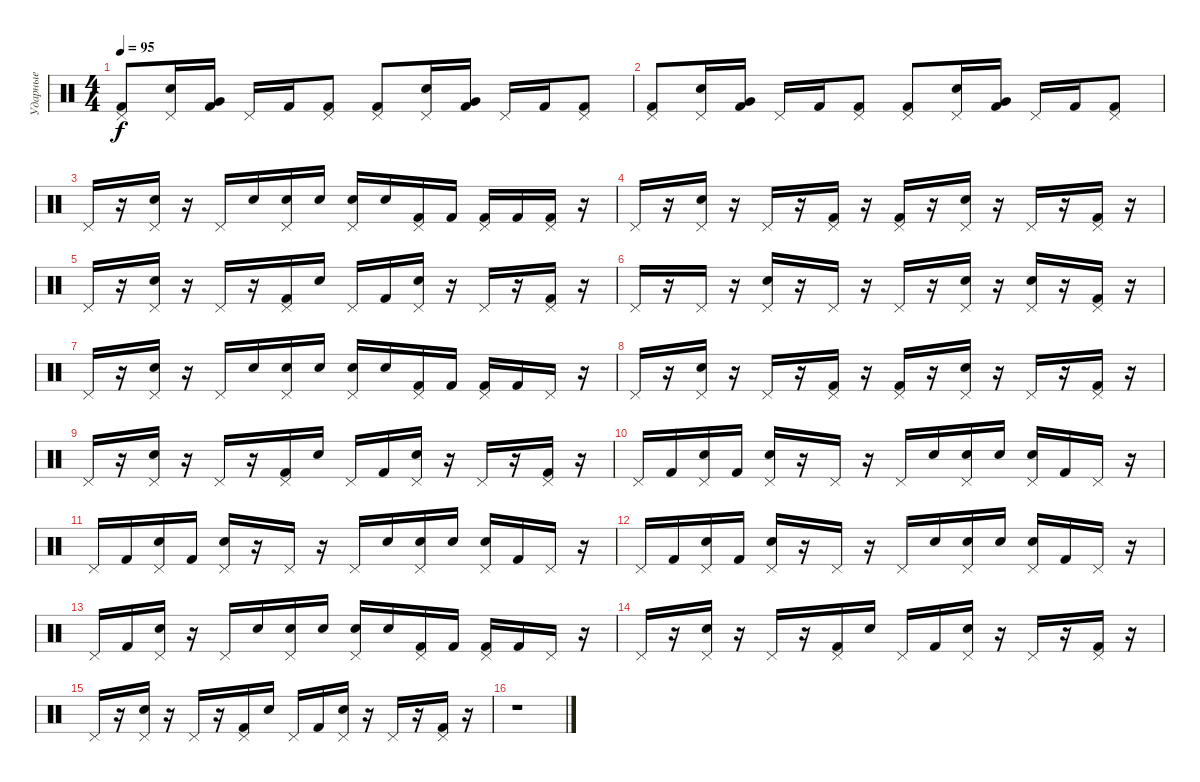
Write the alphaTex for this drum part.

\track ("Ударные" "Ударные") {instrument percussion}
\staff {score}
\articulation defaults
\ts (4 4)
\tempo 95
\clef neutral
\ks c
("Pedal Hi-Hat (hit)" "Kick (hit) 2").8{dy f} ("Pedal Hi-Hat (hit)" "Snare (hit) 2").16 ("Very Low Tom (hit)" "Kick (hit) 2").16 "Pedal Hi-Hat (hit)".16 "Kick (hit) 2".16 ("Pedal Hi-Hat (hit)" "Kick (hit) 2").8 ("Pedal Hi-Hat (hit)" "Kick (hit) 2").8 ("Pedal Hi-Hat (hit)" "Snare (hit) 2").16 ("Very Low Tom (hit)" "Kick (hit) 2").16 "Pedal Hi-Hat (hit)".16 "Kick (hit) 2".16 ("Pedal Hi-Hat (hit)" "Kick (hit) 2").8 |
("Pedal Hi-Hat (hit)" "Kick (hit) 2").8 ("Pedal Hi-Hat (hit)" "Snare (hit) 2").16 ("Very Low Tom (hit)" "Kick (hit) 2").16 "Pedal Hi-Hat (hit)".16 "Kick (hit) 2".16 ("Pedal Hi-Hat (hit)" "Kick (hit) 2").8 ("Pedal Hi-Hat (hit)" "Kick (hit) 2").8 ("Pedal Hi-Hat (hit)" "Snare (hit) 2").16 ("Very Low Tom (hit)" "Kick (hit) 2").16 "Pedal Hi-Hat (hit)".16 "Kick (hit) 2".16 ("Pedal Hi-Hat (hit)" "Kick (hit) 2").8 |
"Pedal Hi-Hat (hit)".16 r.16 ("Pedal Hi-Hat (hit)" "Snare (hit) 2").16 r.16 "Pedal Hi-Hat (hit)".16 "Snare (hit) 2".16 ("Pedal Hi-Hat (hit)" "Snare (hit) 2").16 "Snare (hit) 2".16 ("Pedal Hi-Hat (hit)" "Snare (hit) 2").16 "Snare (hit) 2".16 ("Pedal Hi-Hat (hit)" "Kick (hit) 2").16 "Kick (hit) 2".16 ("Pedal Hi-Hat (hit)" "Kick (hit) 2").16 "Kick (hit) 2".16 ("Pedal Hi-Hat (hit)" "Kick (hit) 2").16 r.16 |
"Pedal Hi-Hat (hit)".16 r.16 ("Pedal Hi-Hat (hit)" "Snare (hit) 2").16 r.16 "Pedal Hi-Hat (hit)".16 r.16 ("Pedal Hi-Hat (hit)" "Kick (hit) 2").16 r.16 ("Pedal Hi-Hat (hit)" "Kick (hit) 2").16 r.16 ("Pedal Hi-Hat (hit)" "Snare (hit) 2").16 r.16 "Pedal Hi-Hat (hit)".16 r.16 ("Pedal Hi-Hat (hit)" "Kick (hit) 2").16 r.16 |
"Pedal Hi-Hat (hit)".16 r.16 ("Pedal Hi-Hat (hit)" "Snare (hit) 2").16 r.16 "Pedal Hi-Hat (hit)".16 r.16 ("Pedal Hi-Hat (hit)" "Kick (hit) 2").16 "Snare (hit) 2".16 "Pedal Hi-Hat (hit)".16 "Kick (hit) 2".16 ("Pedal Hi-Hat (hit)" "Snare (hit) 2").16 r.16 "Pedal Hi-Hat (hit)".16 r.16 ("Pedal Hi-Hat (hit)" "Kick (hit) 2").16 r.16 |
"Pedal Hi-Hat (hit)".16 r.16 "Pedal Hi-Hat (hit)".16 r.16 ("Pedal Hi-Hat (hit)" "Snare (hit) 2").16 r.16 "Pedal Hi-Hat (hit)".16 r.16 "Pedal Hi-Hat (hit)".16 r.16 ("Pedal Hi-Hat (hit)" "Snare (hit) 2").16 r.16 ("Pedal Hi-Hat (hit)" "Snare (hit) 2").16 r.16 ("Pedal Hi-Hat (hit)" "Kick (hit) 2").16 r.16 |
"Pedal Hi-Hat (hit)".16 r.16 ("Pedal Hi-Hat (hit)" "Snare (hit) 2").16 r.16 "Pedal Hi-Hat (hit)".16 "Snare (hit) 2".16 ("Pedal Hi-Hat (hit)" "Snare (hit) 2").16 "Snare (hit) 2".16 ("Pedal Hi-Hat (hit)" "Snare (hit) 2").16 "Snare (hit) 2".16 ("Pedal Hi-Hat (hit)" "Kick (hit) 2").16 "Kick (hit) 2".16 ("Pedal Hi-Hat (hit)" "Kick (hit) 2").16 "Kick (hit) 2".16 "Pedal Hi-Hat (hit)".16 r.16 |
"Pedal Hi-Hat (hit)".16 r.16 ("Pedal Hi-Hat (hit)" "Snare (hit) 2").16 r.16 "Pedal Hi-Hat (hit)".16 r.16 ("Pedal Hi-Hat (hit)" "Kick (hit) 2").16 r.16 ("Pedal Hi-Hat (hit)" "Kick (hit) 2").16 r.16 ("Pedal Hi-Hat (hit)" "Snare (hit) 2").16 r.16 "Pedal Hi-Hat (hit)".16 r.16 ("Pedal Hi-Hat (hit)" "Kick (hit) 2").16 r.16 |
"Pedal Hi-Hat (hit)".16 r.16 ("Pedal Hi-Hat (hit)" "Snare (hit) 2").16 r.16 "Pedal Hi-Hat (hit)".16 r.16 ("Pedal Hi-Hat (hit)" "Kick (hit) 2").16 "Snare (hit) 2".16 "Pedal Hi-Hat (hit)".16 "Kick (hit) 2".16 ("Pedal Hi-Hat (hit)" "Snare (hit) 2").16 r.16 "Pedal Hi-Hat (hit)".16 r.16 ("Pedal Hi-Hat (hit)" "Kick (hit) 2").16 r.16 |
"Pedal Hi-Hat (hit)".16 "Kick (hit) 2".16 ("Pedal Hi-Hat (hit)" "Snare (hit) 2").16 "Kick (hit) 2".16 ("Pedal Hi-Hat (hit)" "Snare (hit) 2").16 r.16 "Pedal Hi-Hat (hit)".16 r.16 "Pedal Hi-Hat (hit)".16 "Snare (hit) 2".16 ("Pedal Hi-Hat (hit)" "Snare (hit) 2").16 "Snare (hit) 2".16 ("Pedal Hi-Hat (hit)" "Snare (hit) 2").16 "Kick (hit) 2".16 "Pedal Hi-Hat (hit)".16 r.16 |
"Pedal Hi-Hat (hit)".16 "Kick (hit) 2".16 ("Pedal Hi-Hat (hit)" "Snare (hit) 2").16 "Kick (hit) 2".16 ("Pedal Hi-Hat (hit)" "Snare (hit) 2").16 r.16 "Pedal Hi-Hat (hit)".16 r.16 "Pedal Hi-Hat (hit)".16 "Snare (hit) 2".16 ("Pedal Hi-Hat (hit)" "Snare (hit) 2").16 "Snare (hit) 2".16 ("Pedal Hi-Hat (hit)" "Snare (hit) 2").16 "Kick (hit) 2".16 "Pedal Hi-Hat (hit)".16 r.16 |
"Pedal Hi-Hat (hit)".16 "Kick (hit) 2".16 ("Pedal Hi-Hat (hit)" "Snare (hit) 2").16 "Kick (hit) 2".16 ("Pedal Hi-Hat (hit)" "Snare (hit) 2").16 r.16 "Pedal Hi-Hat (hit)".16 r.16 "Pedal Hi-Hat (hit)".16 "Snare (hit) 2".16 ("Pedal Hi-Hat (hit)" "Snare (hit) 2").16 "Snare (hit) 2".16 ("Pedal Hi-Hat (hit)" "Snare (hit) 2").16 "Kick (hit) 2".16 "Pedal Hi-Hat (hit)".16 r.16 |
"Pedal Hi-Hat (hit)".16 "Kick (hit) 2".16 ("Pedal Hi-Hat (hit)" "Snare (hit) 2").16 r.16 "Pedal Hi-Hat (hit)".16 "Snare (hit) 2".16 ("Pedal Hi-Hat (hit)" "Snare (hit) 2").16 "Snare (hit) 2".16 ("Pedal Hi-Hat (hit)" "Snare (hit) 2").16 "Snare (hit) 2".16 ("Pedal Hi-Hat (hit)" "Kick (hit) 2").16 "Kick (hit) 2".16 ("Pedal Hi-Hat (hit)" "Kick (hit) 2").16 "Kick (hit) 2".16 "Pedal Hi-Hat (hit)".16 r.16 |
"Pedal Hi-Hat (hit)".16 r.16 ("Pedal Hi-Hat (hit)" "Snare (hit) 2").16 r.16 "Pedal Hi-Hat (hit)".16 r.16 ("Pedal Hi-Hat (hit)" "Kick (hit) 2").16 "Snare (hit) 2".16 "Pedal Hi-Hat (hit)".16 "Kick (hit) 2".16 ("Pedal Hi-Hat (hit)" "Snare (hit) 2").16 r.16 "Pedal Hi-Hat (hit)".16 r.16 ("Pedal Hi-Hat (hit)" "Kick (hit) 2").16 r.16 |
"Pedal Hi-Hat (hit)".16 r.16 ("Pedal Hi-Hat (hit)" "Snare (hit) 2").16 r.16 "Pedal Hi-Hat (hit)".16 r.16 ("Pedal Hi-Hat (hit)" "Kick (hit) 2").16 "Snare (hit) 2".16 "Pedal Hi-Hat (hit)".16 "Kick (hit) 2".16 ("Pedal Hi-Hat (hit)" "Snare (hit) 2").16 r.16 "Pedal Hi-Hat (hit)".16 r.16 ("Pedal Hi-Hat (hit)" "Kick (hit) 2").16 r.16 |
r.1
